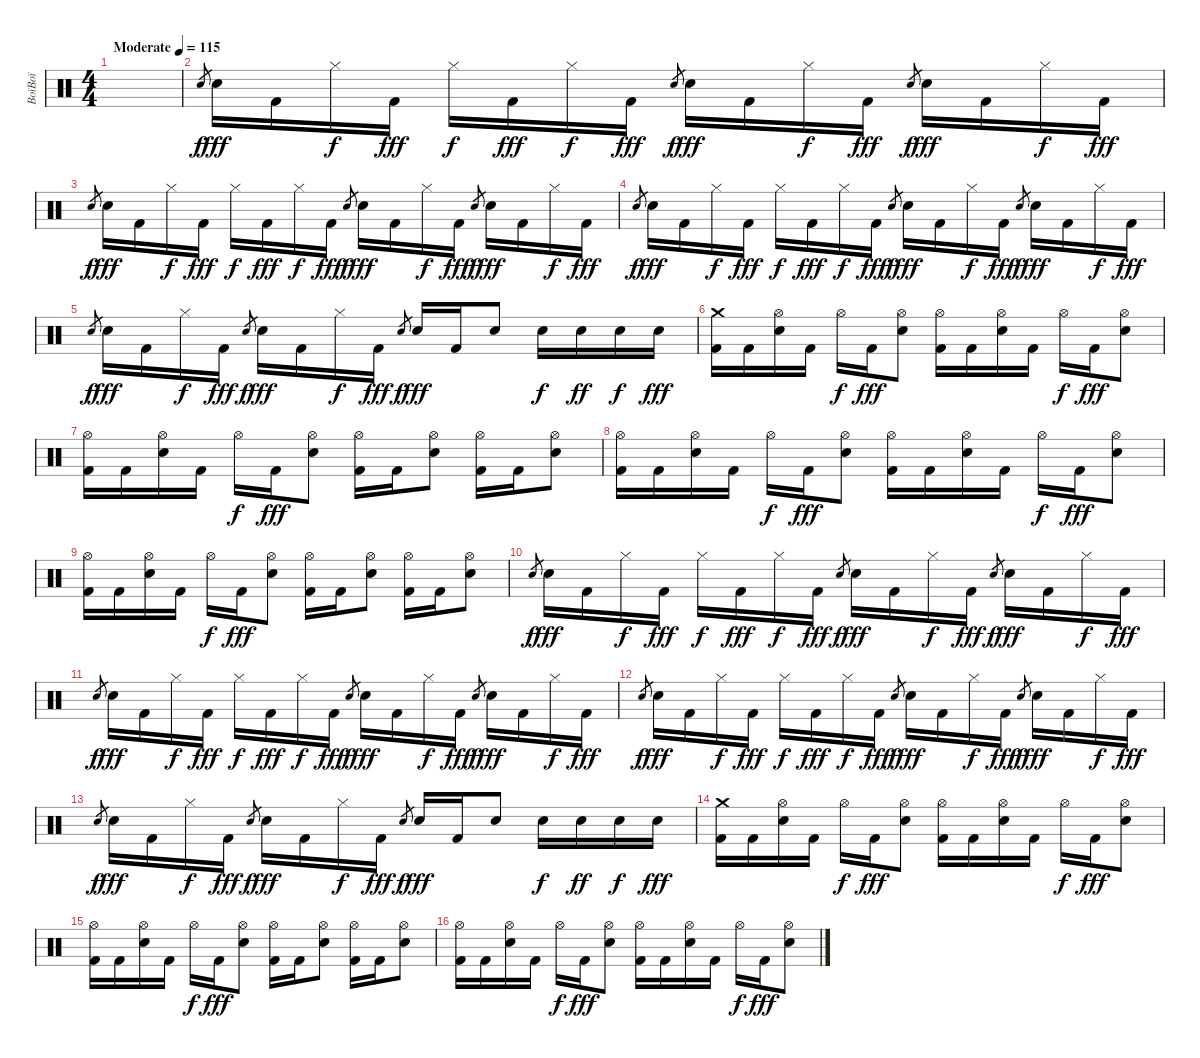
\track ("BoïBoï" "BoïBoï") {instrument percussion}
\staff {score}
\articulation defaults
\ts (4 4)
\tempo (115 "Moderate")
\clef neutral
\ks c
|
"Electric Snare (hit)".8{gr} "Electric Snare (hit)".16{dy fff} "Kick (hit) 2".16 "Hi-Hat (closed)".16{dy f} "Kick (hit) 2".16{dy fff} "Hi-Hat (closed)".16{dy f} "Kick (hit) 2".16{dy fff} "Hi-Hat (closed)".16{dy f} "Kick (hit) 2".16{dy fff} "Electric Snare (hit)".8{gr dy f} "Electric Snare (hit)".16{dy fff} "Kick (hit) 2".16 "Hi-Hat (closed)".16{dy f} "Kick (hit) 2".16{dy fff} "Electric Snare (hit)".8{gr dy f} "Electric Snare (hit)".16{dy fff} "Kick (hit) 2".16 "Hi-Hat (closed)".16{dy f} "Kick (hit) 2".16{dy fff} |
"Electric Snare (hit)".8{gr dy f} "Electric Snare (hit)".16{dy fff} "Kick (hit) 2".16 "Hi-Hat (closed)".16{dy f} "Kick (hit) 2".16{dy fff} "Hi-Hat (closed)".16{dy f} "Kick (hit) 2".16{dy fff} "Hi-Hat (closed)".16{dy f} "Kick (hit) 2".16{dy fff} "Electric Snare (hit)".8{gr dy f} "Electric Snare (hit)".16{dy fff} "Kick (hit) 2".16 "Hi-Hat (closed)".16{dy f} "Kick (hit) 2".16{dy fff} "Electric Snare (hit)".8{gr dy f} "Electric Snare (hit)".16{dy fff} "Kick (hit) 2".16 "Hi-Hat (closed)".16{dy f} "Kick (hit) 2".16{dy fff} |
"Electric Snare (hit)".8{gr dy f} "Electric Snare (hit)".16{dy fff} "Kick (hit) 2".16 "Hi-Hat (closed)".16{dy f} "Kick (hit) 2".16{dy fff} "Hi-Hat (closed)".16{dy f} "Kick (hit) 2".16{dy fff} "Hi-Hat (closed)".16{dy f} "Kick (hit) 2".16{dy fff} "Electric Snare (hit)".8{gr dy f} "Electric Snare (hit)".16{dy fff} "Kick (hit) 2".16 "Hi-Hat (closed)".16{dy f} "Kick (hit) 2".16{dy fff} "Electric Snare (hit)".8{gr dy f} "Electric Snare (hit)".16{dy fff} "Kick (hit) 2".16 "Hi-Hat (closed)".16{dy f} "Kick (hit) 2".16{dy fff} |
"Electric Snare (hit)".8{gr dy f} "Electric Snare (hit)".16{dy fff} "Kick (hit) 2".16 "Hi-Hat (closed)".16{dy f} "Kick (hit) 2".16{dy fff} "Electric Snare (hit)".8{gr dy f} "Electric Snare (hit)".16{dy fff} "Kick (hit) 2".16 "Hi-Hat (closed)".16{dy f} "Kick (hit) 2".16{dy fff} "Electric Snare (hit)".8{gr dy f} "Electric Snare (hit)".16{dy fff} "Kick (hit) 2".16 "Electric Snare (hit)".8 "Electric Snare (hit)".16{dy f} "Electric Snare (hit)".16{dy ff} "Electric Snare (hit)".16{dy f} "Electric Snare (hit)".16{dy fff} |
("Crash medium (hit)" "Kick (hit) 2").16 "Kick (hit) 2".16 ("Hi-Hat (open)" "Electric Snare (hit)").16 "Kick (hit) 2".16 "Hi-Hat (open)".16{dy f} "Kick (hit) 2".16{dy fff} ("Hi-Hat (open)" "Electric Snare (hit)").8 ("Hi-Hat (open)" "Kick (hit) 2").16 "Kick (hit) 2".16 ("Hi-Hat (open)" "Electric Snare (hit)").16 "Kick (hit) 2".16 "Hi-Hat (open)".16{dy f} "Kick (hit) 2".16{dy fff} ("Hi-Hat (open)" "Electric Snare (hit)").8 |
("Hi-Hat (open)" "Kick (hit) 2").16 "Kick (hit) 2".16 ("Hi-Hat (open)" "Electric Snare (hit)").16 "Kick (hit) 2".16 "Hi-Hat (open)".16{dy f} "Kick (hit) 2".16{dy fff} ("Hi-Hat (open)" "Electric Snare (hit)").8 ("Hi-Hat (open)" "Kick (hit) 2").16 "Kick (hit) 2".16 ("Hi-Hat (open)" "Electric Snare (hit)").8 ("Hi-Hat (open)" "Kick (hit) 2").16 "Kick (hit) 2".16 ("Hi-Hat (open)" "Electric Snare (hit)").8 |
("Hi-Hat (open)" "Kick (hit) 2").16 "Kick (hit) 2".16 ("Hi-Hat (open)" "Electric Snare (hit)").16 "Kick (hit) 2".16 "Hi-Hat (open)".16{dy f} "Kick (hit) 2".16{dy fff} ("Hi-Hat (open)" "Electric Snare (hit)").8 ("Hi-Hat (open)" "Kick (hit) 2").16 "Kick (hit) 2".16 ("Hi-Hat (open)" "Electric Snare (hit)").16 "Kick (hit) 2".16 "Hi-Hat (open)".16{dy f} "Kick (hit) 2".16{dy fff} ("Hi-Hat (open)" "Electric Snare (hit)").8 |
("Hi-Hat (open)" "Kick (hit) 2").16 "Kick (hit) 2".16 ("Hi-Hat (open)" "Electric Snare (hit)").16 "Kick (hit) 2".16 "Hi-Hat (open)".16{dy f} "Kick (hit) 2".16{dy fff} ("Hi-Hat (open)" "Electric Snare (hit)").8 ("Hi-Hat (open)" "Kick (hit) 2").16 "Kick (hit) 2".16 ("Hi-Hat (open)" "Electric Snare (hit)").8 ("Hi-Hat (open)" "Kick (hit) 2").16 "Kick (hit) 2".16 ("Hi-Hat (open)" "Electric Snare (hit)").8 |
"Electric Snare (hit)".8{gr dy f} "Electric Snare (hit)".16{dy fff} "Kick (hit) 2".16 "Hi-Hat (closed)".16{dy f} "Kick (hit) 2".16{dy fff} "Hi-Hat (closed)".16{dy f} "Kick (hit) 2".16{dy fff} "Hi-Hat (closed)".16{dy f} "Kick (hit) 2".16{dy fff} "Electric Snare (hit)".8{gr dy f} "Electric Snare (hit)".16{dy fff} "Kick (hit) 2".16 "Hi-Hat (closed)".16{dy f} "Kick (hit) 2".16{dy fff} "Electric Snare (hit)".8{gr dy f} "Electric Snare (hit)".16{dy fff} "Kick (hit) 2".16 "Hi-Hat (closed)".16{dy f} "Kick (hit) 2".16{dy fff} |
"Electric Snare (hit)".8{gr dy f} "Electric Snare (hit)".16{dy fff} "Kick (hit) 2".16 "Hi-Hat (closed)".16{dy f} "Kick (hit) 2".16{dy fff} "Hi-Hat (closed)".16{dy f} "Kick (hit) 2".16{dy fff} "Hi-Hat (closed)".16{dy f} "Kick (hit) 2".16{dy fff} "Electric Snare (hit)".8{gr dy f} "Electric Snare (hit)".16{dy fff} "Kick (hit) 2".16 "Hi-Hat (closed)".16{dy f} "Kick (hit) 2".16{dy fff} "Electric Snare (hit)".8{gr dy f} "Electric Snare (hit)".16{dy fff} "Kick (hit) 2".16 "Hi-Hat (closed)".16{dy f} "Kick (hit) 2".16{dy fff} |
"Electric Snare (hit)".8{gr dy f} "Electric Snare (hit)".16{dy fff} "Kick (hit) 2".16 "Hi-Hat (closed)".16{dy f} "Kick (hit) 2".16{dy fff} "Hi-Hat (closed)".16{dy f} "Kick (hit) 2".16{dy fff} "Hi-Hat (closed)".16{dy f} "Kick (hit) 2".16{dy fff} "Electric Snare (hit)".8{gr dy f} "Electric Snare (hit)".16{dy fff} "Kick (hit) 2".16 "Hi-Hat (closed)".16{dy f} "Kick (hit) 2".16{dy fff} "Electric Snare (hit)".8{gr dy f} "Electric Snare (hit)".16{dy fff} "Kick (hit) 2".16 "Hi-Hat (closed)".16{dy f} "Kick (hit) 2".16{dy fff} |
"Electric Snare (hit)".8{gr dy f} "Electric Snare (hit)".16{dy fff} "Kick (hit) 2".16 "Hi-Hat (closed)".16{dy f} "Kick (hit) 2".16{dy fff} "Electric Snare (hit)".8{gr dy f} "Electric Snare (hit)".16{dy fff} "Kick (hit) 2".16 "Hi-Hat (closed)".16{dy f} "Kick (hit) 2".16{dy fff} "Electric Snare (hit)".8{gr dy f} "Electric Snare (hit)".16{dy fff} "Kick (hit) 2".16 "Electric Snare (hit)".8 "Electric Snare (hit)".16{dy f} "Electric Snare (hit)".16{dy ff} "Electric Snare (hit)".16{dy f} "Electric Snare (hit)".16{dy fff} |
("Crash medium (hit)" "Kick (hit) 2").16 "Kick (hit) 2".16 ("Hi-Hat (open)" "Electric Snare (hit)").16 "Kick (hit) 2".16 "Hi-Hat (open)".16{dy f} "Kick (hit) 2".16{dy fff} ("Hi-Hat (open)" "Electric Snare (hit)").8 ("Hi-Hat (open)" "Kick (hit) 2").16 "Kick (hit) 2".16 ("Hi-Hat (open)" "Electric Snare (hit)").16 "Kick (hit) 2".16 "Hi-Hat (open)".16{dy f} "Kick (hit) 2".16{dy fff} ("Hi-Hat (open)" "Electric Snare (hit)").8 |
("Hi-Hat (open)" "Kick (hit) 2").16 "Kick (hit) 2".16 ("Hi-Hat (open)" "Electric Snare (hit)").16 "Kick (hit) 2".16 "Hi-Hat (open)".16{dy f} "Kick (hit) 2".16{dy fff} ("Hi-Hat (open)" "Electric Snare (hit)").8 ("Hi-Hat (open)" "Kick (hit) 2").16 "Kick (hit) 2".16 ("Hi-Hat (open)" "Electric Snare (hit)").8 ("Hi-Hat (open)" "Kick (hit) 2").16 "Kick (hit) 2".16 ("Hi-Hat (open)" "Electric Snare (hit)").8 |
("Hi-Hat (open)" "Kick (hit) 2").16 "Kick (hit) 2".16 ("Hi-Hat (open)" "Electric Snare (hit)").16 "Kick (hit) 2".16 "Hi-Hat (open)".16{dy f} "Kick (hit) 2".16{dy fff} ("Hi-Hat (open)" "Electric Snare (hit)").8 ("Hi-Hat (open)" "Kick (hit) 2").16 "Kick (hit) 2".16 ("Hi-Hat (open)" "Electric Snare (hit)").16 "Kick (hit) 2".16 "Hi-Hat (open)".16{dy f} "Kick (hit) 2".16{dy fff} ("Hi-Hat (open)" "Electric Snare (hit)").8
